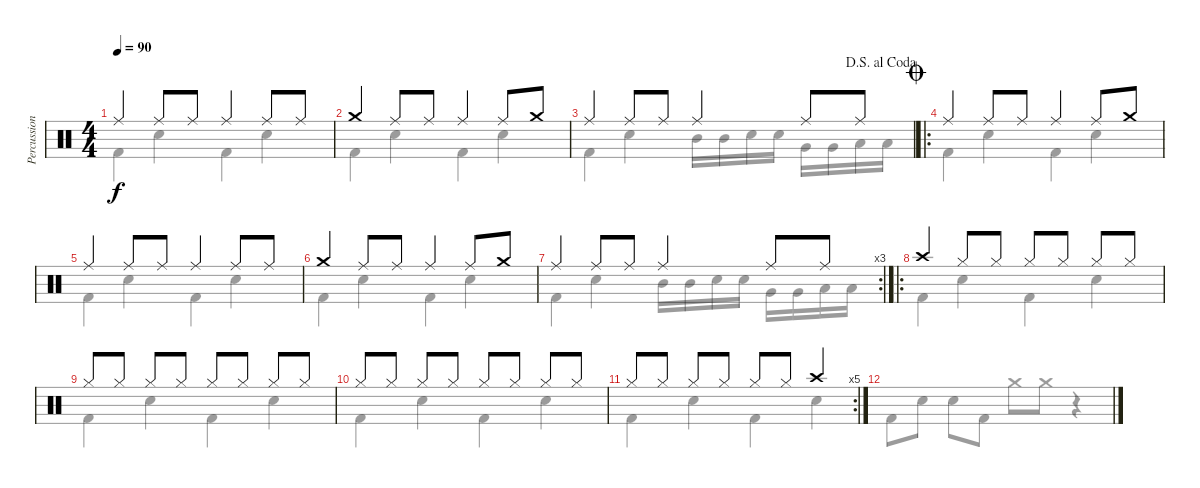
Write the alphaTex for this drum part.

\track ("Percussion" "Percussion") {instrument percussion}
\staff {score}
\articulation defaults
\voice
\ts (4 4)
\tempo 90
\clef neutral
\ks c "Ride (middle)".4{dy f} "Ride (middle)".8 "Ride (middle)".8 "Ride (middle)".4 "Ride (middle)".8 "Ride (middle)".8
|
"Crash medium (hit)".4 "Ride (middle)".8 "Ride (middle)".8 "Ride (middle)".4 "Ride (middle)".8 "Crash medium (hit)".8 |
\jump dalsegnoalcoda "Ride (middle)".4 "Ride (middle)".8 "Ride (middle)".8 "Ride (middle)".4 "Ride (middle)".8 "Ride (middle)".8
|
\ro
\jump coda "Ride (middle)".4 "Ride (middle)".8 "Ride (middle)".8 "Ride (middle)".4 "Ride (middle)".8 "Crash medium (hit)".8
|
"Ride (middle)".4 "Ride (middle)".8 "Ride (middle)".8 "Ride (middle)".4 "Ride (middle)".8 "Ride (middle)".8 |
"Crash medium (hit)".4 "Ride (middle)".8 "Ride (middle)".8 "Ride (middle)".4 "Ride (middle)".8 "Crash medium (hit)".8 |
\rc 3 "Ride (middle)".4 "Ride (middle)".8 "Ride (middle)".8 "Ride (middle)".4 "Ride (middle)".8 "Ride (middle)".8
|
\ro "Crash high (hit)".4 "Hi-Hat (closed)".8 "Hi-Hat (closed)".8 "Hi-Hat (closed)".8 "Hi-Hat (closed)".8 "Hi-Hat (closed)".8 "Hi-Hat (closed)".8
|
"Hi-Hat (closed)".8 "Hi-Hat (closed)".8 "Hi-Hat (closed)".8 "Hi-Hat (closed)".8 "Hi-Hat (closed)".8 "Hi-Hat (closed)".8 "Hi-Hat (closed)".8 "Hi-Hat (closed)".8 |
"Hi-Hat (closed)".8 "Hi-Hat (closed)".8 "Hi-Hat (closed)".8 "Hi-Hat (closed)".8 "Hi-Hat (closed)".8 "Hi-Hat (closed)".8 "Hi-Hat (closed)".8 "Hi-Hat (closed)".8 |
\rc 5 "Hi-Hat (closed)".8 "Hi-Hat (closed)".8 "Hi-Hat (closed)".8 "Hi-Hat (closed)".8 "Hi-Hat (closed)".8 "Hi-Hat (closed)".8 "Crash high (hit)".4
|
\voice
\clef neutral
\ottava regular
\simile none
\ks c "Kick (hit) 2".4{dy f} "Snare (hit) 2".4 "Kick (hit) 2".4 "Snare (hit) 2".4
|
"Kick (hit) 2".4 "Snare (hit) 2".4 "Kick (hit) 2".4 "Snare (hit) 2".4 |
"Kick (hit) 2".4 "Snare (hit) 2".4 "Mid Tom (hit)".16 "Mid Tom (hit)".16 "Snare (hit) 2".16 "Snare (hit) 2".16 "Very Low Tom (hit)".16 "Very Low Tom (hit)".16 "Low Floor Tom (hit)".16 "Low Floor Tom (hit)".16 |
"Kick (hit) 2".4 "Snare (hit) 2".4 "Kick (hit) 2".4 "Snare (hit) 2".4 |
"Kick (hit) 2".4 "Snare (hit) 2".4 "Kick (hit) 2".4 "Snare (hit) 2".4 |
"Kick (hit) 2".4 "Snare (hit) 2".4 "Kick (hit) 2".4 "Snare (hit) 2".4 |
"Kick (hit) 2".4 "Snare (hit) 2".4 "Mid Tom (hit)".16 "Mid Tom (hit)".16 "Snare (hit) 2".16 "Snare (hit) 2".16 "Very Low Tom (hit)".16 "Very Low Tom (hit)".16 "Low Floor Tom (hit)".16 "Low Floor Tom (hit)".16 |
"Kick (hit) 2".4 "Snare (hit) 2".4 "Kick (hit) 2".4 "Snare (hit) 2".4 |
"Kick (hit) 2".4 "Snare (hit) 2".4 "Kick (hit) 2".4 "Snare (hit) 2".4 |
"Kick (hit) 2".4 "Snare (hit) 2".4 "Kick (hit) 2".4 "Snare (hit) 2".4 |
"Kick (hit) 2".4 "Snare (hit) 2".4 "Kick (hit) 2".4 "Snare (hit) 2".4 |
"Kick (hit) 2".8 "Snare (hit) 2".8 "Snare (hit) 2".8 "Kick (hit) 2".8 "Crash medium (hit)".8 "Crash medium (hit)".8 r.4
